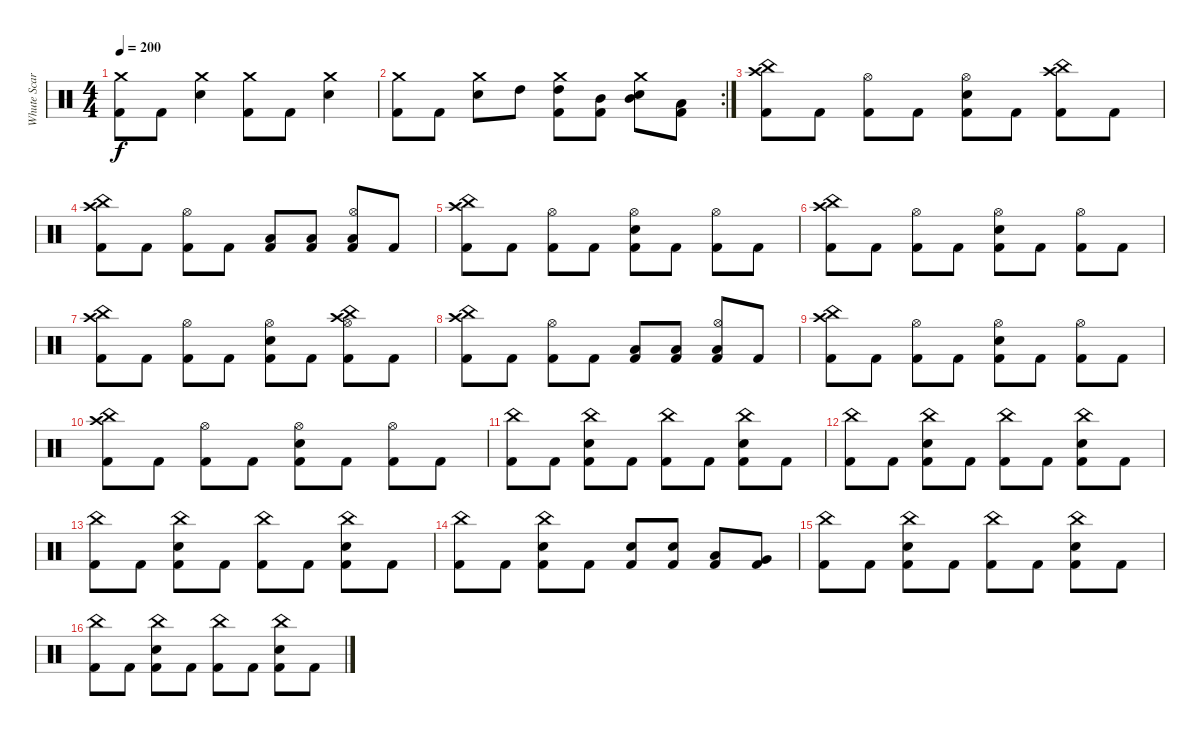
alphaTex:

\track ("Whute Scar" "Whute Scar") {instrument percussion}
\staff {score}
\articulation defaults
\ts (4 4)
\tempo 200
\clef neutral
\ks c
("Crash medium (hit)" "Kick (hit) 2").8{dy f} "Kick (hit) 2".8 ("Crash medium (hit)" "Snare (hit) 2").4 ("Crash medium (hit)" "Kick (hit) 2").8 "Kick (hit) 2".8 ("Crash medium (hit)" "Snare (hit) 2").4 |
\rc 2
("Crash medium (hit)" "Kick (hit) 2").8 "Kick (hit) 2".8 ("Crash medium (hit)" "Snare (hit) 2").8 "High Tom (hit)".8 ("Crash medium (hit)" "High Tom (hit)" "Kick (hit) 2").8 ("Mid Tom (hit)" "Kick (hit) 2").8 ("Crash medium (hit)" "Mid Tom (hit)" "Snare (hit) 2").8 ("Low Tom (hit)" "Kick (hit) 2").8 |
("Kick (hit) 2" "Crash high (hit)" "China (hit)").8 "Kick (hit) 2".8 ("Kick (hit) 2" "Hi-Hat (open)").8 "Kick (hit) 2".8 ("Kick (hit) 2" "Snare (hit) 2" "Hi-Hat (open)").8 "Kick (hit) 2".8 ("Kick (hit) 2" "Crash high (hit)" "China (hit)").8 "Kick (hit) 2".8 |
("Kick (hit) 2" "China (hit)" "Crash high (hit)").8 "Kick (hit) 2".8 ("Kick (hit) 2" "Hi-Hat (open)").8 "Kick (hit) 2".8 ("Kick (hit) 2" "Low Floor Tom (hit)").8 ("Kick (hit) 2" "Low Floor Tom (hit)").8 ("Kick (hit) 2" "Low Floor Tom (hit)" "Hi-Hat (open)").8 "Kick (hit) 2".8 |
("Kick (hit) 2" "China (hit)" "Crash high (hit)").8 "Kick (hit) 2".8 ("Kick (hit) 2" "Hi-Hat (open)").8 "Kick (hit) 2".8 ("Kick (hit) 2" "Snare (hit) 2" "Hi-Hat (open)").8 "Kick (hit) 2".8 ("Kick (hit) 2" "Hi-Hat (open)").8 "Kick (hit) 2".8 |
("Kick (hit) 2" "Crash high (hit)" "China (hit)").8 "Kick (hit) 2".8 ("Kick (hit) 2" "Hi-Hat (open)").8 "Kick (hit) 2".8 ("Kick (hit) 2" "Snare (hit) 2" "Hi-Hat (open)").8 "Kick (hit) 2".8 ("Kick (hit) 2" "Hi-Hat (open)").8 "Kick (hit) 2".8 |
("Kick (hit) 2" "Crash high (hit)" "China (hit)").8 "Kick (hit) 2".8 ("Kick (hit) 2" "Hi-Hat (open)").8 "Kick (hit) 2".8 ("Kick (hit) 2" "Snare (hit) 2" "Hi-Hat (open)").8 "Kick (hit) 2".8 ("Kick (hit) 2" "Hi-Hat (open)" "Crash high (hit)" "China (hit)").8 "Kick (hit) 2".8 |
("Kick (hit) 2" "China (hit)" "Crash high (hit)").8 "Kick (hit) 2".8 ("Kick (hit) 2" "Hi-Hat (open)").8 "Kick (hit) 2".8 ("Kick (hit) 2" "Low Floor Tom (hit)").8 ("Kick (hit) 2" "Low Floor Tom (hit)").8 ("Kick (hit) 2" "Low Floor Tom (hit)" "Hi-Hat (open)").8 "Kick (hit) 2".8 |
("Kick (hit) 2" "China (hit)" "Crash high (hit)").8 "Kick (hit) 2".8 ("Kick (hit) 2" "Hi-Hat (open)").8 "Kick (hit) 2".8 ("Kick (hit) 2" "Snare (hit) 2" "Hi-Hat (open)").8 "Kick (hit) 2".8 ("Kick (hit) 2" "Hi-Hat (open)").8 "Kick (hit) 2".8 |
("Kick (hit) 2" "Crash high (hit)" "China (hit)").8 "Kick (hit) 2".8 ("Kick (hit) 2" "Hi-Hat (open)").8 "Kick (hit) 2".8 ("Kick (hit) 2" "Snare (hit) 2" "Hi-Hat (open)").8 "Kick (hit) 2".8 ("Kick (hit) 2" "Hi-Hat (open)").8 "Kick (hit) 2".8 |
("China (hit)" "Kick (hit) 2").8 "Kick (hit) 2".8 ("China (hit)" "Snare (hit) 2" "Kick (hit) 2").8 "Kick (hit) 2".8 ("China (hit)" "Kick (hit) 2").8 "Kick (hit) 2".8 ("China (hit)" "Snare (hit) 2" "Kick (hit) 2").8 "Kick (hit) 2".8 |
("China (hit)" "Kick (hit) 2").8 "Kick (hit) 2".8 ("China (hit)" "Snare (hit) 2" "Kick (hit) 2").8 "Kick (hit) 2".8 ("China (hit)" "Kick (hit) 2").8 "Kick (hit) 2".8 ("China (hit)" "Snare (hit) 2" "Kick (hit) 2").8 "Kick (hit) 2".8 |
("China (hit)" "Kick (hit) 2").8 "Kick (hit) 2".8 ("China (hit)" "Snare (hit) 2" "Kick (hit) 2").8 "Kick (hit) 2".8 ("China (hit)" "Kick (hit) 2").8 "Kick (hit) 2".8 ("China (hit)" "Snare (hit) 2" "Kick (hit) 2").8 "Kick (hit) 2".8 |
("China (hit)" "Kick (hit) 2").8 "Kick (hit) 2".8 ("China (hit)" "Snare (hit) 2" "Kick (hit) 2").8 "Kick (hit) 2".8 ("Snare (hit) 2" "Kick (hit) 2").8 ("Snare (hit) 2" "Kick (hit) 2").8 ("Low Tom (hit)" "Kick (hit) 2").8 ("Very Low Tom (hit)" "Kick (hit) 2").8 |
("China (hit)" "Kick (hit) 2").8 "Kick (hit) 2".8 ("China (hit)" "Snare (hit) 2" "Kick (hit) 2").8 "Kick (hit) 2".8 ("China (hit)" "Kick (hit) 2").8 "Kick (hit) 2".8 ("China (hit)" "Snare (hit) 2" "Kick (hit) 2").8 "Kick (hit) 2".8 |
("China (hit)" "Kick (hit) 2").8 "Kick (hit) 2".8 ("China (hit)" "Snare (hit) 2" "Kick (hit) 2").8 "Kick (hit) 2".8 ("China (hit)" "Kick (hit) 2").8 "Kick (hit) 2".8 ("China (hit)" "Snare (hit) 2" "Kick (hit) 2").8 "Kick (hit) 2".8
